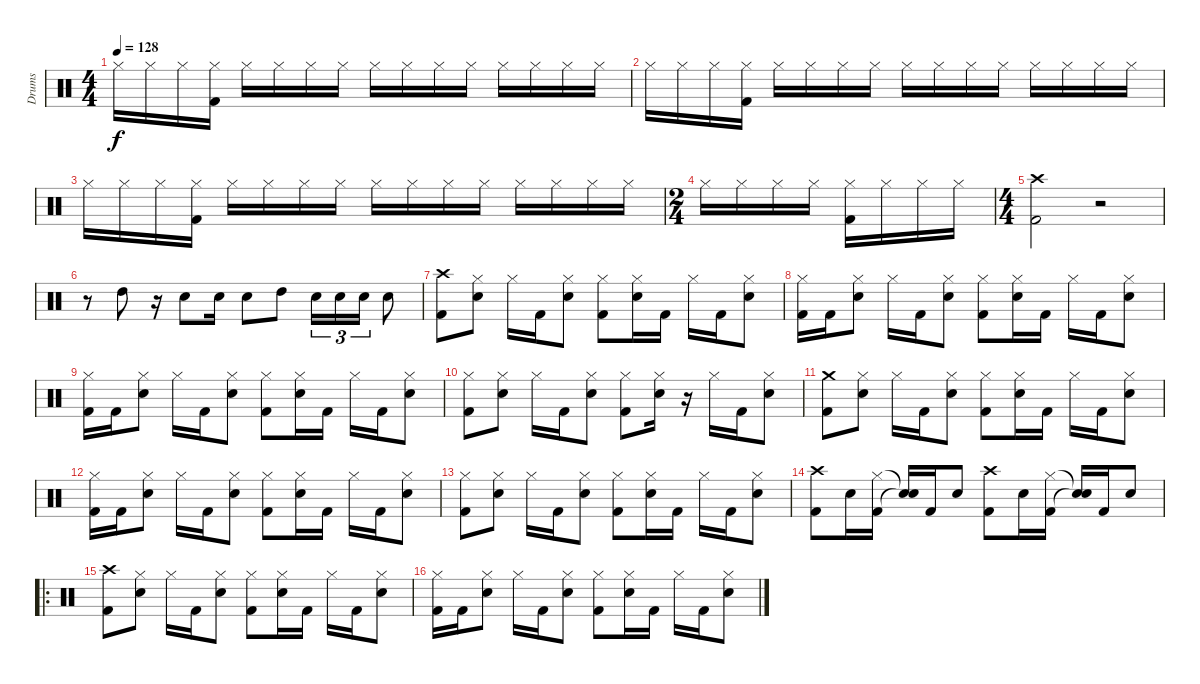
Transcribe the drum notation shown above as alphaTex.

\track ("Drums" "Drums") {instrument percussion}
\staff {score}
\articulation defaults
\ts (4 4)
\tempo 128
\clef neutral
\ks c "Hi-Hat (closed)".16{dy f} "Hi-Hat (closed)".16 "Hi-Hat (closed)".16
("Kick (hit) 2" "Hi-Hat (closed)").16 "Hi-Hat (closed)".16 "Hi-Hat (closed)".16 "Hi-Hat (closed)".16 "Hi-Hat (closed)".16 "Hi-Hat (closed)".16 "Hi-Hat (closed)".16 "Hi-Hat (closed)".16 "Hi-Hat (closed)".16 "Hi-Hat (closed)".16 "Hi-Hat (closed)".16 "Hi-Hat (closed)".16 "Hi-Hat (closed)".16 |
"Hi-Hat (closed)".16 "Hi-Hat (closed)".16 "Hi-Hat (closed)".16 ("Kick (hit) 2" "Hi-Hat (closed)").16 "Hi-Hat (closed)".16 "Hi-Hat (closed)".16 "Hi-Hat (closed)".16 "Hi-Hat (closed)".16 "Hi-Hat (closed)".16 "Hi-Hat (closed)".16 "Hi-Hat (closed)".16 "Hi-Hat (closed)".16 "Hi-Hat (closed)".16 "Hi-Hat (closed)".16 "Hi-Hat (closed)".16 "Hi-Hat (closed)".16 |
"Hi-Hat (closed)".16 "Hi-Hat (closed)".16 "Hi-Hat (closed)".16 ("Kick (hit) 2" "Hi-Hat (closed)").16 "Hi-Hat (closed)".16 "Hi-Hat (closed)".16 "Hi-Hat (closed)".16 "Hi-Hat (closed)".16 "Hi-Hat (closed)".16 "Hi-Hat (closed)".16 "Hi-Hat (closed)".16 "Hi-Hat (closed)".16 "Hi-Hat (closed)".16 "Hi-Hat (closed)".16 "Hi-Hat (closed)".16 "Hi-Hat (closed)".16 |
\ts (2 4)
"Hi-Hat (closed)".16 "Hi-Hat (closed)".16 "Hi-Hat (closed)".16 "Hi-Hat (closed)".16 ("Kick (hit) 2" "Hi-Hat (closed)").16 "Hi-Hat (closed)".16 "Hi-Hat (closed)".16 "Hi-Hat (closed)".16 |
\ts (4 4)
("Kick (hit) 2" "Crash high (hit)").2 r.2 |
r.8 "High Tom (hit)".8 r.16 "Snare (hit) 2".8 "Snare (hit) 2".16 "Snare (hit) 2".8 "High Tom (hit)".8 "Snare (hit) 2".16{tu (3 2)} "Snare (hit) 2".16{tu (3 2)} "Snare (hit) 2".16{tu (3 2)} "Snare (hit) 2".8 |
("Kick (hit) 2" "Crash high (hit)").8 ("Snare (hit) 2" "Hi-Hat (closed)").8 "Hi-Hat (closed)".16 "Kick (hit) 2".16 ("Snare (hit) 2" "Hi-Hat (closed)").8 ("Kick (hit) 2" "Hi-Hat (closed)").8 ("Snare (hit) 2" "Hi-Hat (closed)").16 "Kick (hit) 2".16 "Hi-Hat (closed)".16 "Kick (hit) 2".16 ("Snare (hit) 2" "Hi-Hat (closed)").8 |
("Kick (hit) 2" "Hi-Hat (closed)").16 "Kick (hit) 2".16 ("Snare (hit) 2" "Hi-Hat (closed)").8 "Hi-Hat (closed)".16 "Kick (hit) 2".16 ("Snare (hit) 2" "Hi-Hat (closed)").8 ("Kick (hit) 2" "Hi-Hat (closed)").8 ("Snare (hit) 2" "Hi-Hat (closed)").16 "Kick (hit) 2".16 "Hi-Hat (closed)".16 "Kick (hit) 2".16 ("Snare (hit) 2" "Hi-Hat (closed)").8 |
("Kick (hit) 2" "Hi-Hat (closed)").16 "Kick (hit) 2".16 ("Snare (hit) 2" "Hi-Hat (closed)").8 "Hi-Hat (closed)".16 "Kick (hit) 2".16 ("Snare (hit) 2" "Hi-Hat (closed)").8 ("Kick (hit) 2" "Hi-Hat (closed)").8 ("Snare (hit) 2" "Hi-Hat (closed)").16 "Kick (hit) 2".16 "Hi-Hat (closed)".16 "Kick (hit) 2".16 ("Snare (hit) 2" "Hi-Hat (closed)").8 |
("Kick (hit) 2" "Hi-Hat (closed)").8 ("Snare (hit) 2" "Hi-Hat (closed)").8 "Hi-Hat (closed)".16 "Kick (hit) 2".16 ("Snare (hit) 2" "Hi-Hat (closed)").8 ("Kick (hit) 2" "Hi-Hat (closed)").8 ("Snare (hit) 2" "Hi-Hat (closed)").16 r.16 "Hi-Hat (closed)".16 "Kick (hit) 2".16 ("Snare (hit) 2" "Hi-Hat (closed)").8 |
("Kick (hit) 2" "Crash medium (hit)").8 ("Snare (hit) 2" "Hi-Hat (closed)").8 "Hi-Hat (closed)".16 "Kick (hit) 2".16 ("Snare (hit) 2" "Hi-Hat (closed)").8 ("Kick (hit) 2" "Hi-Hat (closed)").8 ("Snare (hit) 2" "Hi-Hat (closed)").16 "Kick (hit) 2".16 "Hi-Hat (closed)".16 "Kick (hit) 2".16 ("Snare (hit) 2" "Hi-Hat (closed)").8 |
("Kick (hit) 2" "Hi-Hat (closed)").16 "Kick (hit) 2".16 ("Snare (hit) 2" "Hi-Hat (closed)").8 "Hi-Hat (closed)".16 "Kick (hit) 2".16 ("Snare (hit) 2" "Hi-Hat (closed)").8 ("Kick (hit) 2" "Hi-Hat (closed)").8 ("Snare (hit) 2" "Hi-Hat (closed)").16 "Kick (hit) 2".16 "Hi-Hat (closed)".16 "Kick (hit) 2".16 ("Snare (hit) 2" "Hi-Hat (closed)").8 |
("Kick (hit) 2" "Hi-Hat (closed)").8 ("Snare (hit) 2" "Hi-Hat (closed)").8 "Hi-Hat (closed)".16 "Kick (hit) 2".16 ("Snare (hit) 2" "Hi-Hat (closed)").8 ("Kick (hit) 2" "Hi-Hat (closed)").8 ("Snare (hit) 2" "Hi-Hat (closed)").16 "Kick (hit) 2".16 "Hi-Hat (closed)".16 "Kick (hit) 2".16 ("Snare (hit) 2" "Hi-Hat (closed)").8 |
("Kick (hit) 2" "Crash high (hit)").8 "Snare (hit) 2".16 ("Kick (hit) 2" "Hi-Hat (closed)").16 ("Snare (hit)"{t} "Snare (hit)"{t}).16 "Kick (hit) 2".16 "Snare (hit) 2".8 ("Kick (hit) 2" "Crash high (hit)").8 "Snare (hit) 2".16 ("Kick (hit) 2" "Hi-Hat (closed)").16 ("Snare (hit)"{t} "Snare (hit)"{t}).16 "Kick (hit) 2".16 "Snare (hit) 2".8 |
\ro
("Kick (hit) 2" "Crash high (hit)").8 ("Snare (hit) 2" "Hi-Hat (closed)").8 "Hi-Hat (closed)".16 "Kick (hit) 2".16 ("Snare (hit) 2" "Hi-Hat (closed)").8 ("Kick (hit) 2" "Hi-Hat (closed)").8 ("Snare (hit) 2" "Hi-Hat (closed)").16 "Kick (hit) 2".16 "Hi-Hat (closed)".16 "Kick (hit) 2".16 ("Snare (hit) 2" "Hi-Hat (closed)").8 |
("Kick (hit) 2" "Hi-Hat (closed)").16 "Kick (hit) 2".16 ("Snare (hit) 2" "Hi-Hat (closed)").8 "Hi-Hat (closed)".16 "Kick (hit) 2".16 ("Snare (hit) 2" "Hi-Hat (closed)").8 ("Kick (hit) 2" "Hi-Hat (closed)").8 ("Snare (hit) 2" "Hi-Hat (closed)").16 "Kick (hit) 2".16 "Hi-Hat (closed)".16 "Kick (hit) 2".16 ("Snare (hit) 2" "Hi-Hat (closed)").8
